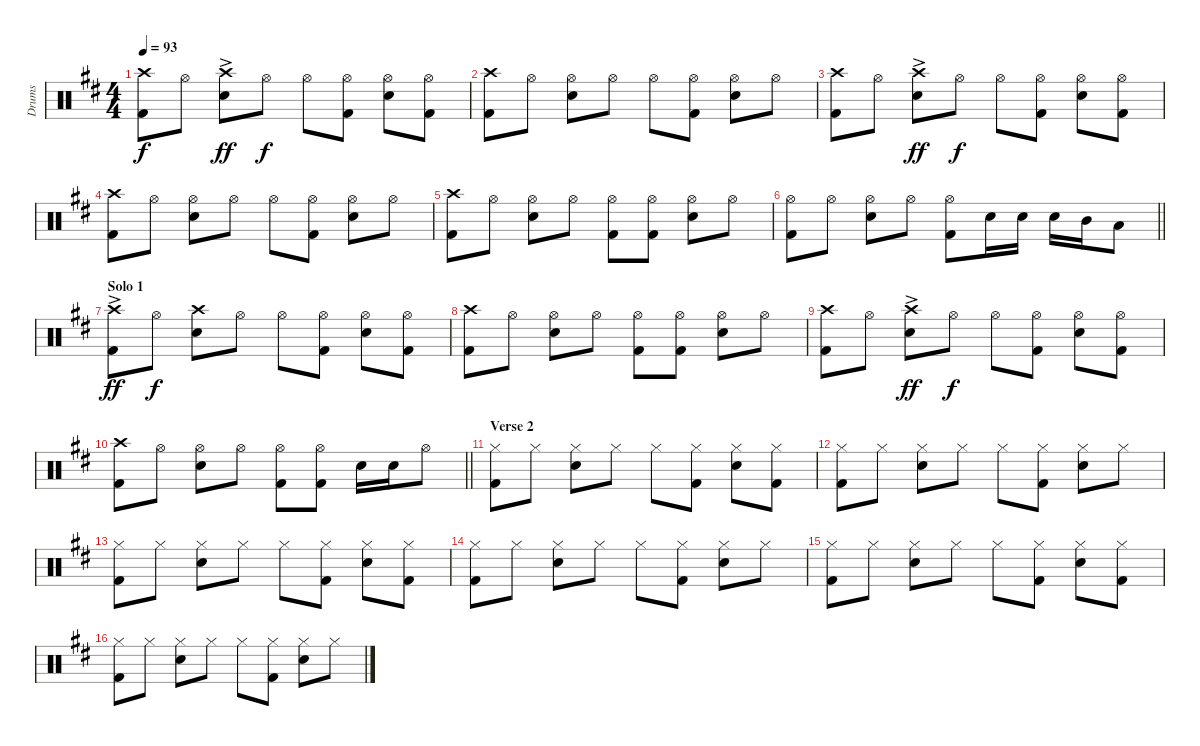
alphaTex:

\track ("Drums" "Drums") {instrument percussion}
\staff {score}
\articulation defaults
\ts (4 4)
\tempo 93
\clef neutral
\ks d
("Crash high (hit)" "Kick (hit) 2").8{dy f} "Hi-Hat (open)".8 ("Crash high (hit)"{ac} "Electric Snare (hit)").8{dy ff} "Hi-Hat (open)".8{dy f} "Hi-Hat (open)".8 ("Hi-Hat (open)" "Kick (hit) 2").8 ("Hi-Hat (open)" "Electric Snare (hit)").8 ("Hi-Hat (open)" "Kick (hit) 2").8 |
("Crash high (hit)" "Kick (hit) 2").8 "Hi-Hat (open)".8 ("Hi-Hat (open)" "Electric Snare (hit)").8 "Hi-Hat (open)".8 "Hi-Hat (open)".8 ("Hi-Hat (open)" "Kick (hit) 2").8 ("Hi-Hat (open)" "Electric Snare (hit)").8 "Hi-Hat (open)".8 |
("Crash high (hit)" "Kick (hit) 2").8 "Hi-Hat (open)".8 ("Crash high (hit)"{ac} "Electric Snare (hit)").8{dy ff} "Hi-Hat (open)".8{dy f} "Hi-Hat (open)".8 ("Hi-Hat (open)" "Kick (hit) 2").8 ("Hi-Hat (open)" "Electric Snare (hit)").8 ("Hi-Hat (open)" "Kick (hit) 2").8 |
("Crash high (hit)" "Kick (hit) 2").8 "Hi-Hat (open)".8 ("Hi-Hat (open)" "Electric Snare (hit)").8 "Hi-Hat (open)".8 "Hi-Hat (open)".8 ("Hi-Hat (open)" "Kick (hit) 2").8 ("Hi-Hat (open)" "Electric Snare (hit)").8 "Hi-Hat (open)".8 |
("Crash high (hit)" "Kick (hit) 2").8 "Hi-Hat (open)".8 ("Hi-Hat (open)" "Electric Snare (hit)").8 "Hi-Hat (open)".8 ("Hi-Hat (open)" "Kick (hit) 2").8 ("Hi-Hat (open)" "Kick (hit) 2").8 ("Hi-Hat (open)" "Electric Snare (hit)").8 "Hi-Hat (open)".8 |
\barLineRight lightlight
("Hi-Hat (open)" "Kick (hit) 2").8 "Hi-Hat (open)".8 ("Hi-Hat (open)" "Electric Snare (hit)").8 "Hi-Hat (open)".8 ("Hi-Hat (open)" "Kick (hit) 2").8 "Electric Snare (hit)".16 "Electric Snare (hit)".16 "Electric Snare (hit)".16 "Mid Tom (hit)".16 "Low Tom (hit)".8 |
\section ("" "Solo 1")
("Crash high (hit)"{ac} "Kick (hit) 2").8{dy ff} "Hi-Hat (open)".8{dy f} ("Crash high (hit)" "Electric Snare (hit)").8 "Hi-Hat (open)".8 "Hi-Hat (open)".8 ("Hi-Hat (open)" "Kick (hit) 2").8 ("Hi-Hat (open)" "Electric Snare (hit)").8 ("Hi-Hat (open)" "Kick (hit) 2").8 |
("Crash high (hit)" "Kick (hit) 2").8 "Hi-Hat (open)".8 ("Hi-Hat (open)" "Electric Snare (hit)").8 "Hi-Hat (open)".8 ("Hi-Hat (open)" "Kick (hit) 2").8 ("Hi-Hat (open)" "Kick (hit) 2").8 ("Hi-Hat (open)" "Electric Snare (hit)").8 "Hi-Hat (open)".8 |
("Crash high (hit)" "Kick (hit) 2").8 "Hi-Hat (open)".8 ("Crash high (hit)"{ac} "Electric Snare (hit)").8{dy ff} "Hi-Hat (open)".8{dy f} "Hi-Hat (open)".8 ("Hi-Hat (open)" "Kick (hit) 2").8 ("Hi-Hat (open)" "Electric Snare (hit)").8 ("Hi-Hat (open)" "Kick (hit) 2").8 |
\barLineRight lightlight
("Crash high (hit)" "Kick (hit) 2").8 "Hi-Hat (open)".8 ("Hi-Hat (open)" "Electric Snare (hit)").8 "Hi-Hat (open)".8 ("Hi-Hat (open)" "Kick (hit) 2").8 ("Hi-Hat (open)" "Kick (hit) 2").8 "Electric Snare (hit)".16 "Electric Snare (hit)".16 "Hi-Hat (open)".8 |
\section ("" "Verse 2")
("Hi-Hat (closed)" "Kick (hit) 2").8 "Hi-Hat (closed)".8 ("Hi-Hat (closed)" "Electric Snare (hit)").8 "Hi-Hat (closed)".8 "Hi-Hat (closed)".8 ("Hi-Hat (closed)" "Kick (hit) 2").8 ("Hi-Hat (closed)" "Electric Snare (hit)").8 ("Hi-Hat (closed)" "Kick (hit) 2").8 |
("Hi-Hat (closed)" "Kick (hit) 2").8 "Hi-Hat (closed)".8 ("Hi-Hat (closed)" "Electric Snare (hit)").8 "Hi-Hat (closed)".8 "Hi-Hat (closed)".8 ("Hi-Hat (closed)" "Kick (hit) 2").8 ("Hi-Hat (closed)" "Electric Snare (hit)").8 "Hi-Hat (closed)".8 |
("Hi-Hat (closed)" "Kick (hit) 2").8 "Hi-Hat (closed)".8 ("Hi-Hat (closed)" "Electric Snare (hit)").8 "Hi-Hat (closed)".8 "Hi-Hat (closed)".8 ("Hi-Hat (closed)" "Kick (hit) 2").8 ("Hi-Hat (closed)" "Electric Snare (hit)").8 ("Hi-Hat (closed)" "Kick (hit) 2").8 |
("Hi-Hat (closed)" "Kick (hit) 2").8 "Hi-Hat (closed)".8 ("Hi-Hat (closed)" "Electric Snare (hit)").8 "Hi-Hat (closed)".8 "Hi-Hat (closed)".8 ("Hi-Hat (closed)" "Kick (hit) 2").8 ("Hi-Hat (closed)" "Electric Snare (hit)").8 "Hi-Hat (closed)".8 |
("Hi-Hat (closed)" "Kick (hit) 2").8 "Hi-Hat (closed)".8 ("Hi-Hat (closed)" "Electric Snare (hit)").8 "Hi-Hat (closed)".8 "Hi-Hat (closed)".8 ("Hi-Hat (closed)" "Kick (hit) 2").8 ("Hi-Hat (closed)" "Electric Snare (hit)").8 ("Hi-Hat (closed)" "Kick (hit) 2").8 |
("Hi-Hat (closed)" "Kick (hit) 2").8 "Hi-Hat (closed)".8 ("Hi-Hat (closed)" "Electric Snare (hit)").8 "Hi-Hat (closed)".8 "Hi-Hat (closed)".8 ("Hi-Hat (closed)" "Kick (hit) 2").8 ("Hi-Hat (closed)" "Electric Snare (hit)").8 "Hi-Hat (closed)".8
